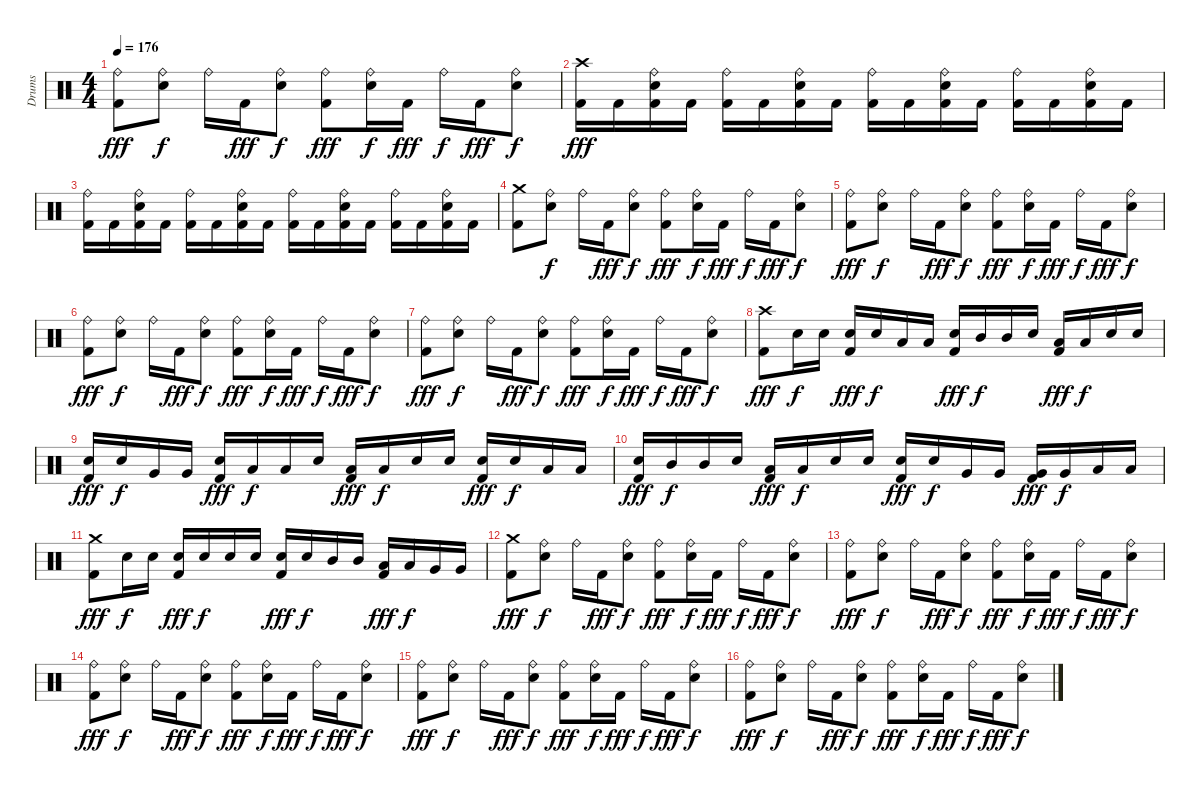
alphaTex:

\track ("Drums" "Drums") {instrument percussion}
\staff {score}
\articulation defaults
\ts (4 4)
\tempo 176
\clef neutral
\ks c
("Ride (bell)" "Kick (hit) 2").8{dy fff} ("Ride (bell)" "Snare (hit) 2").8{dy f} "Ride (bell)".16 "Kick (hit) 2".16{dy fff} ("Ride (bell)" "Snare (hit) 2").8{dy f} ("Ride (bell)" "Kick (hit) 2").8{dy fff} ("Ride (bell)" "Snare (hit) 2").16{dy f} "Kick (hit) 2".16{dy fff} "Ride (bell)".16{dy f} "Kick (hit) 2".16{dy fff} ("Ride (bell)" "Snare (hit) 2").8{dy f} |
("Crash high (hit)" "Kick (hit) 2").16{dy fff} "Kick (hit) 2".16 ("Ride (bell)" "Snare (hit) 2" "Kick (hit) 2").16 "Kick (hit) 2".16 ("Ride (bell)" "Kick (hit) 2").16 "Kick (hit) 2".16 ("Ride (bell)" "Snare (hit) 2" "Kick (hit) 2").16 "Kick (hit) 2".16 ("Ride (bell)" "Kick (hit) 2").16 "Kick (hit) 2".16 ("Ride (bell)" "Snare (hit) 2" "Kick (hit) 2").16 "Kick (hit) 2".16 ("Ride (bell)" "Kick (hit) 2").16 "Kick (hit) 2".16 ("Ride (bell)" "Snare (hit) 2" "Kick (hit) 2").16 "Kick (hit) 2".16 |
("Ride (bell)" "Kick (hit) 2").16 "Kick (hit) 2".16 ("Ride (bell)" "Snare (hit) 2" "Kick (hit) 2").16 "Kick (hit) 2".16 ("Ride (bell)" "Kick (hit) 2").16 "Kick (hit) 2".16 ("Ride (bell)" "Snare (hit) 2" "Kick (hit) 2").16 "Kick (hit) 2".16 ("Ride (bell)" "Kick (hit) 2").16 "Kick (hit) 2".16 ("Ride (bell)" "Snare (hit) 2" "Kick (hit) 2").16 "Kick (hit) 2".16 ("Ride (bell)" "Kick (hit) 2").16 "Kick (hit) 2".16 ("Ride (bell)" "Snare (hit) 2" "Kick (hit) 2").16 "Kick (hit) 2".16 |
("Crash medium (hit)" "Kick (hit) 2").8 ("Ride (bell)" "Snare (hit) 2").8{dy f} "Ride (bell)".16 "Kick (hit) 2".16{dy fff} ("Ride (bell)" "Snare (hit) 2").8{dy f} ("Ride (bell)" "Kick (hit) 2").8{dy fff} ("Ride (bell)" "Snare (hit) 2").16{dy f} "Kick (hit) 2".16{dy fff} "Ride (bell)".16{dy f} "Kick (hit) 2".16{dy fff} ("Ride (bell)" "Snare (hit) 2").8{dy f} |
("Ride (bell)" "Kick (hit) 2").8{dy fff} ("Ride (bell)" "Snare (hit) 2").8{dy f} "Ride (bell)".16 "Kick (hit) 2".16{dy fff} ("Ride (bell)" "Snare (hit) 2").8{dy f} ("Ride (bell)" "Kick (hit) 2").8{dy fff} ("Ride (bell)" "Snare (hit) 2").16{dy f} "Kick (hit) 2".16{dy fff} "Ride (bell)".16{dy f} "Kick (hit) 2".16{dy fff} ("Ride (bell)" "Snare (hit) 2").8{dy f} |
("Ride (bell)" "Kick (hit) 2").8{dy fff} ("Ride (bell)" "Snare (hit) 2").8{dy f} "Ride (bell)".16 "Kick (hit) 2".16{dy fff} ("Ride (bell)" "Snare (hit) 2").8{dy f} ("Ride (bell)" "Kick (hit) 2").8{dy fff} ("Ride (bell)" "Snare (hit) 2").16{dy f} "Kick (hit) 2".16{dy fff} "Ride (bell)".16{dy f} "Kick (hit) 2".16{dy fff} ("Ride (bell)" "Snare (hit) 2").8{dy f} |
("Ride (bell)" "Kick (hit) 2").8{dy fff} ("Ride (bell)" "Snare (hit) 2").8{dy f} "Ride (bell)".16 "Kick (hit) 2".16{dy fff} ("Ride (bell)" "Snare (hit) 2").8{dy f} ("Ride (bell)" "Kick (hit) 2").8{dy fff} ("Ride (bell)" "Snare (hit) 2").16{dy f} "Kick (hit) 2".16{dy fff} "Ride (bell)".16{dy f} "Kick (hit) 2".16{dy fff} ("Ride (bell)" "Snare (hit) 2").8{dy f} |
("Crash high (hit)" "Kick (hit) 2").8{dy fff} "Snare (hit) 2".16{dy f} "Snare (hit) 2".16 ("Snare (hit) 2" "Kick (hit) 2").16{dy fff} "Snare (hit) 2".16{dy f} "Low Tom (hit)".16 "Low Tom (hit)".16 ("Snare (hit) 2" "Kick (hit) 2").16{dy fff} "Mid Tom (hit)".16{dy f} "Mid Tom (hit)".16 "Snare (hit) 2".16 ("Low Tom (hit)" "Kick (hit) 2").16{dy fff} "Low Tom (hit)".16{dy f} "Snare (hit) 2".16 "Snare (hit) 2".16 |
("Snare (hit) 2" "Kick (hit) 2").16{dy fff} "Snare (hit) 2".16{dy f} "Very Low Tom (hit)".16 "Very Low Tom (hit)".16 ("Snare (hit) 2" "Kick (hit) 2").16{dy fff} "Low Floor Tom (hit)".16{dy f} "Low Floor Tom (hit)".16 "Snare (hit) 2".16 ("Low Floor Tom (hit)" "Kick (hit) 2").16{dy fff} "Low Floor Tom (hit)".16{dy f} "Snare (hit) 2".16 "Snare (hit) 2".16 ("Snare (hit) 2" "Kick (hit) 2").16{dy fff} "Snare (hit) 2".16{dy f} "Low Floor Tom (hit)".16 "Low Floor Tom (hit)".16 |
("Snare (hit) 2" "Kick (hit) 2").16{dy fff} "Mid Tom (hit)".16{dy f} "Mid Tom (hit)".16 "Snare (hit) 2".16 ("Low Tom (hit)" "Kick (hit) 2").16{dy fff} "Low Tom (hit)".16{dy f} "Snare (hit) 2".16 "Snare (hit) 2".16 ("Snare (hit) 2" "Kick (hit) 2").16{dy fff} "Snare (hit) 2".16{dy f} "Very Low Tom (hit)".16 "Very Low Tom (hit)".16 ("Very Low Tom (hit)" "Kick (hit) 2").16{dy fff} "Very Low Tom (hit)".16{dy f} "Low Floor Tom (hit)".16 "Low Floor Tom (hit)".16 |
("Crash medium (hit)" "Kick (hit) 2").8{dy fff} "Snare (hit) 2".16{dy f} "Snare (hit) 2".16 ("Snare (hit) 2" "Kick (hit) 2").16{dy fff} "Snare (hit) 2".16{dy f} "Snare (hit) 2".16 "Snare (hit) 2".16 ("Snare (hit) 2" "Kick (hit) 2").16{dy fff} "Snare (hit) 2".16{dy f} "Mid Tom (hit)".16 "Mid Tom (hit)".16 ("Low Tom (hit)" "Kick (hit) 2").16{dy fff} "Low Tom (hit)".16{dy f} "Very Low Tom (hit)".16 "Very Low Tom (hit)".16 |
("Crash medium (hit)" "Kick (hit) 2").8{dy fff} ("Ride (bell)" "Snare (hit) 2").8{dy f} "Ride (bell)".16 "Kick (hit) 2".16{dy fff} ("Ride (bell)" "Snare (hit) 2").8{dy f} ("Ride (bell)" "Kick (hit) 2").8{dy fff} ("Ride (bell)" "Snare (hit) 2").16{dy f} "Kick (hit) 2".16{dy fff} "Ride (bell)".16{dy f} "Kick (hit) 2".16{dy fff} ("Ride (bell)" "Snare (hit) 2").8{dy f} |
("Ride (bell)" "Kick (hit) 2").8{dy fff} ("Ride (bell)" "Snare (hit) 2").8{dy f} "Ride (bell)".16 "Kick (hit) 2".16{dy fff} ("Ride (bell)" "Snare (hit) 2").8{dy f} ("Ride (bell)" "Kick (hit) 2").8{dy fff} ("Ride (bell)" "Snare (hit) 2").16{dy f} "Kick (hit) 2".16{dy fff} "Ride (bell)".16{dy f} "Kick (hit) 2".16{dy fff} ("Ride (bell)" "Snare (hit) 2").8{dy f} |
("Ride (bell)" "Kick (hit) 2").8{dy fff} ("Ride (bell)" "Snare (hit) 2").8{dy f} "Ride (bell)".16 "Kick (hit) 2".16{dy fff} ("Ride (bell)" "Snare (hit) 2").8{dy f} ("Ride (bell)" "Kick (hit) 2").8{dy fff} ("Ride (bell)" "Snare (hit) 2").16{dy f} "Kick (hit) 2".16{dy fff} "Ride (bell)".16{dy f} "Kick (hit) 2".16{dy fff} ("Ride (bell)" "Snare (hit) 2").8{dy f} |
("Ride (bell)" "Kick (hit) 2").8{dy fff} ("Ride (bell)" "Snare (hit) 2").8{dy f} "Ride (bell)".16 "Kick (hit) 2".16{dy fff} ("Ride (bell)" "Snare (hit) 2").8{dy f} ("Ride (bell)" "Kick (hit) 2").8{dy fff} ("Ride (bell)" "Snare (hit) 2").16{dy f} "Kick (hit) 2".16{dy fff} "Ride (bell)".16{dy f} "Kick (hit) 2".16{dy fff} ("Ride (bell)" "Snare (hit) 2").8{dy f} |
("Ride (bell)" "Kick (hit) 2").8{dy fff} ("Ride (bell)" "Snare (hit) 2").8{dy f} "Ride (bell)".16 "Kick (hit) 2".16{dy fff} ("Ride (bell)" "Snare (hit) 2").8{dy f} ("Ride (bell)" "Kick (hit) 2").8{dy fff} ("Ride (bell)" "Snare (hit) 2").16{dy f} "Kick (hit) 2".16{dy fff} "Ride (bell)".16{dy f} "Kick (hit) 2".16{dy fff} ("Ride (bell)" "Snare (hit) 2").8{dy f}
